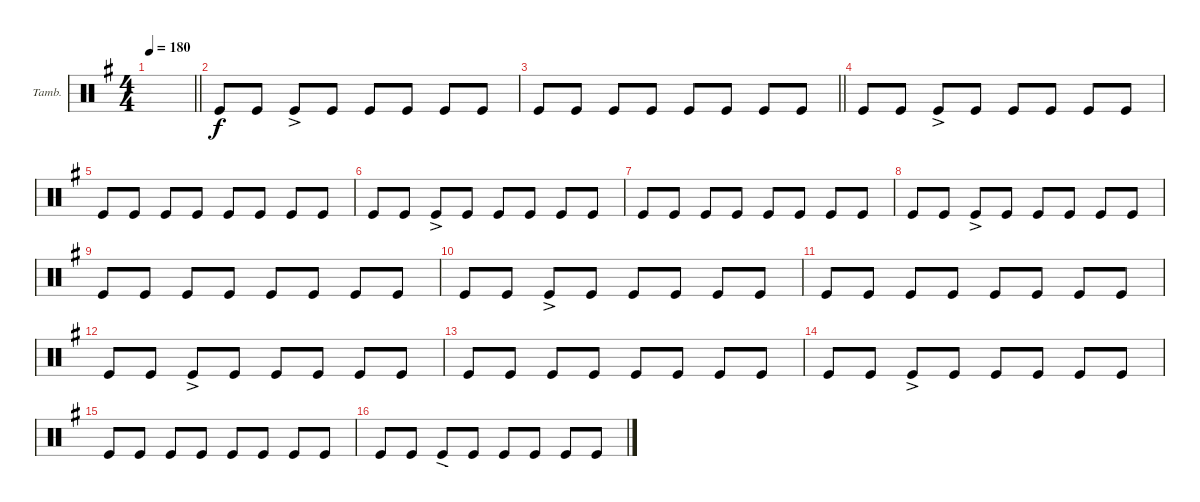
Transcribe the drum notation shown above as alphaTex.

\defaultSystemsLayout 4
\bracketExtendMode groupsimilarinstruments
\firstSystemTrackNameOrientation horizontal
\otherSystemsTrackNameOrientation horizontal
\track ("Tambourine" "Tamb.") {instrument percussion}
\staff {score}
\articulation defaults
\ts (4 4)
\tempo 180
\clef neutral
\scale
0.502183
\barLineRight lightlight
\ks g
|
\scale
0.248908 "Kick (hit)".8 "Kick (hit)".8 "Kick (hit)"{ac}.8 "Kick (hit)".8 "Kick (hit)".8 "Kick (hit)".8 "Kick (hit)".8 "Kick (hit)".8 |
\scale
0.248908
\barLineRight lightlight "Kick (hit)".8 "Kick (hit)".8 "Kick (hit)".8 "Kick (hit)".8 "Kick (hit)".8 "Kick (hit)".8 "Kick (hit)".8 "Kick (hit)".8
|
\scale
0.333333 "Kick (hit)".8 "Kick (hit)".8 "Kick (hit)"{ac}.8 "Kick (hit)".8 "Kick (hit)".8 "Kick (hit)".8 "Kick (hit)".8 "Kick (hit)".8 |
\scale
0.333333 "Kick (hit)".8 "Kick (hit)".8 "Kick (hit)".8 "Kick (hit)".8 "Kick (hit)".8 "Kick (hit)".8 "Kick (hit)".8 "Kick (hit)".8 |
\scale
0.333333 "Kick (hit)".8 "Kick (hit)".8 "Kick (hit)"{ac}.8 "Kick (hit)".8 "Kick (hit)".8 "Kick (hit)".8 "Kick (hit)".8 "Kick (hit)".8 |
"Kick (hit)".8 "Kick (hit)".8 "Kick (hit)".8 "Kick (hit)".8 "Kick (hit)".8 "Kick (hit)".8 "Kick (hit)".8 "Kick (hit)".8 |
"Kick (hit)".8 "Kick (hit)".8 "Kick (hit)"{ac}.8 "Kick (hit)".8 "Kick (hit)".8 "Kick (hit)".8 "Kick (hit)".8 "Kick (hit)".8 |
"Kick (hit)".8 "Kick (hit)".8 "Kick (hit)".8 "Kick (hit)".8 "Kick (hit)".8 "Kick (hit)".8 "Kick (hit)".8 "Kick (hit)".8 |
"Kick (hit)".8 "Kick (hit)".8 "Kick (hit)"{ac}.8 "Kick (hit)".8 "Kick (hit)".8 "Kick (hit)".8 "Kick (hit)".8 "Kick (hit)".8 |
"Kick (hit)".8 "Kick (hit)".8 "Kick (hit)".8 "Kick (hit)".8 "Kick (hit)".8 "Kick (hit)".8 "Kick (hit)".8 "Kick (hit)".8 |
"Kick (hit)".8 "Kick (hit)".8 "Kick (hit)"{ac}.8 "Kick (hit)".8 "Kick (hit)".8 "Kick (hit)".8 "Kick (hit)".8 "Kick (hit)".8 |
"Kick (hit)".8 "Kick (hit)".8 "Kick (hit)".8 "Kick (hit)".8 "Kick (hit)".8 "Kick (hit)".8 "Kick (hit)".8 "Kick (hit)".8 |
"Kick (hit)".8 "Kick (hit)".8 "Kick (hit)"{ac}.8 "Kick (hit)".8 "Kick (hit)".8 "Kick (hit)".8 "Kick (hit)".8 "Kick (hit)".8 |
"Kick (hit)".8 "Kick (hit)".8 "Kick (hit)".8 "Kick (hit)".8 "Kick (hit)".8 "Kick (hit)".8 "Kick (hit)".8 "Kick (hit)".8 |
"Kick (hit)".8 "Kick (hit)".8 "Kick (hit)"{ac}.8 "Kick (hit)".8 "Kick (hit)".8 "Kick (hit)".8 "Kick (hit)".8 "Kick (hit)".8
